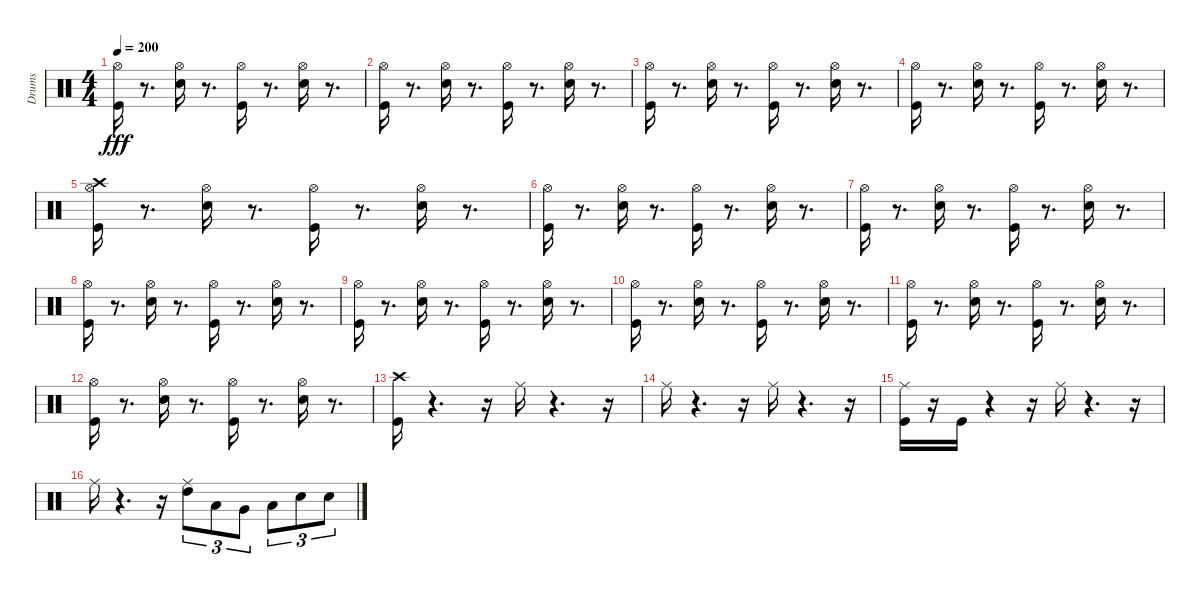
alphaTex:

\track ("Drums" "Drums") {instrument percussion}
\staff {score}
\articulation defaults
\ts (4 4)
\tempo 200
\clef neutral
\ks c
("Hi-Hat (open)" "Kick (hit)").16{dy fff} r.8{d} ("Hi-Hat (open)" "Snare (hit) 2").16 r.8{d} ("Kick (hit)" "Hi-Hat (open)").16 r.8{d} ("Snare (hit) 2" "Hi-Hat (open)").16 r.8{d} |
("Kick (hit)" "Hi-Hat (open)").16 r.8{d} ("Snare (hit) 2" "Hi-Hat (open)").16 r.8{d} ("Kick (hit)" "Hi-Hat (open)").16 r.8{d} ("Hi-Hat (open)" "Snare (hit) 2").16 r.8{d} |
("Hi-Hat (open)" "Kick (hit)").16 r.8{d} ("Snare (hit) 2" "Hi-Hat (open)").16 r.8{d} ("Kick (hit)" "Hi-Hat (open)").16 r.8{d} ("Snare (hit) 2" "Hi-Hat (open)").16 r.8{d} |
("Hi-Hat (open)" "Kick (hit)").16 r.8{d} ("Hi-Hat (open)" "Snare (hit) 2").16 r.8{d} ("Hi-Hat (open)" "Kick (hit)").16 r.8{d} ("Snare (hit) 2" "Hi-Hat (open)").16 r.8{d} |
("Crash high (hit)" "Hi-Hat (open)" "Kick (hit)").16 r.8{d} ("Snare (hit) 2" "Hi-Hat (open)").16 r.8{d} ("Kick (hit)" "Hi-Hat (open)").16 r.8{d} ("Snare (hit) 2" "Hi-Hat (open)").16 r.8{d} |
("Hi-Hat (open)" "Kick (hit)").16 r.8{d} ("Hi-Hat (open)" "Snare (hit) 2").16 r.8{d} ("Kick (hit)" "Hi-Hat (open)").16 r.8{d} ("Hi-Hat (open)" "Snare (hit) 2").16 r.8{d} |
("Kick (hit)" "Hi-Hat (open)").16 r.8{d} ("Snare (hit) 2" "Hi-Hat (open)").16 r.8{d} ("Kick (hit)" "Hi-Hat (open)").16 r.8{d} ("Hi-Hat (open)" "Snare (hit) 2").16 r.8{d} |
("Kick (hit)" "Hi-Hat (open)").16 r.8{d} ("Snare (hit) 2" "Hi-Hat (open)").16 r.8{d} ("Hi-Hat (open)" "Kick (hit)").16 r.8{d} ("Hi-Hat (open)" "Snare (hit) 2").16 r.8{d} |
("Kick (hit)" "Hi-Hat (open)").16 r.8{d} ("Snare (hit) 2" "Hi-Hat (open)").16 r.8{d} ("Kick (hit)" "Hi-Hat (open)").16 r.8{d} ("Snare (hit) 2" "Hi-Hat (open)").16 r.8{d} |
("Hi-Hat (open)" "Kick (hit)").16 r.8{d} ("Hi-Hat (open)" "Snare (hit) 2").16 r.8{d} ("Hi-Hat (open)" "Kick (hit)").16 r.8{d} ("Snare (hit) 2" "Hi-Hat (open)").16 r.8{d} |
("Kick (hit)" "Hi-Hat (open)").16 r.8{d} ("Hi-Hat (open)" "Snare (hit) 2").16 r.8{d} ("Kick (hit)" "Hi-Hat (open)").16 r.8{d} ("Snare (hit) 2" "Hi-Hat (open)").16 r.8{d} |
("Kick (hit)" "Hi-Hat (open)").16 r.8{d} ("Snare (hit) 2" "Hi-Hat (open)").16 r.8{d} ("Kick (hit)" "Hi-Hat (open)").16 r.8{d} ("Hi-Hat (open)" "Snare (hit) 2").16 r.8{d} |
("Crash high (hit)" "Kick (hit)").16 r.4{d} r.16 "Ride (middle)".16 r.4{d} r.16 |
"Ride (middle)".16 r.4{d} r.16 "Ride (middle)".16 r.4{d} r.16 |
("Kick (hit)" "Ride (middle)").16 r.16 "Kick (hit)".16 r.4 r.16 "Ride (middle)".16 r.4{d} r.16 |
"Ride (middle)".16 r.4{d} r.16 ("High Tom (hit)" "Ride (middle)").8{tu (3 2)} "Low Tom (hit)".8{tu (3 2)} "Very Low Tom (hit)".8{tu (3 2)} "Low Floor Tom (hit)".8{tu (3 2)} "Electric Snare (hit)".8{tu (3 2)} "Snare (hit) 2".8{tu (3 2)}
